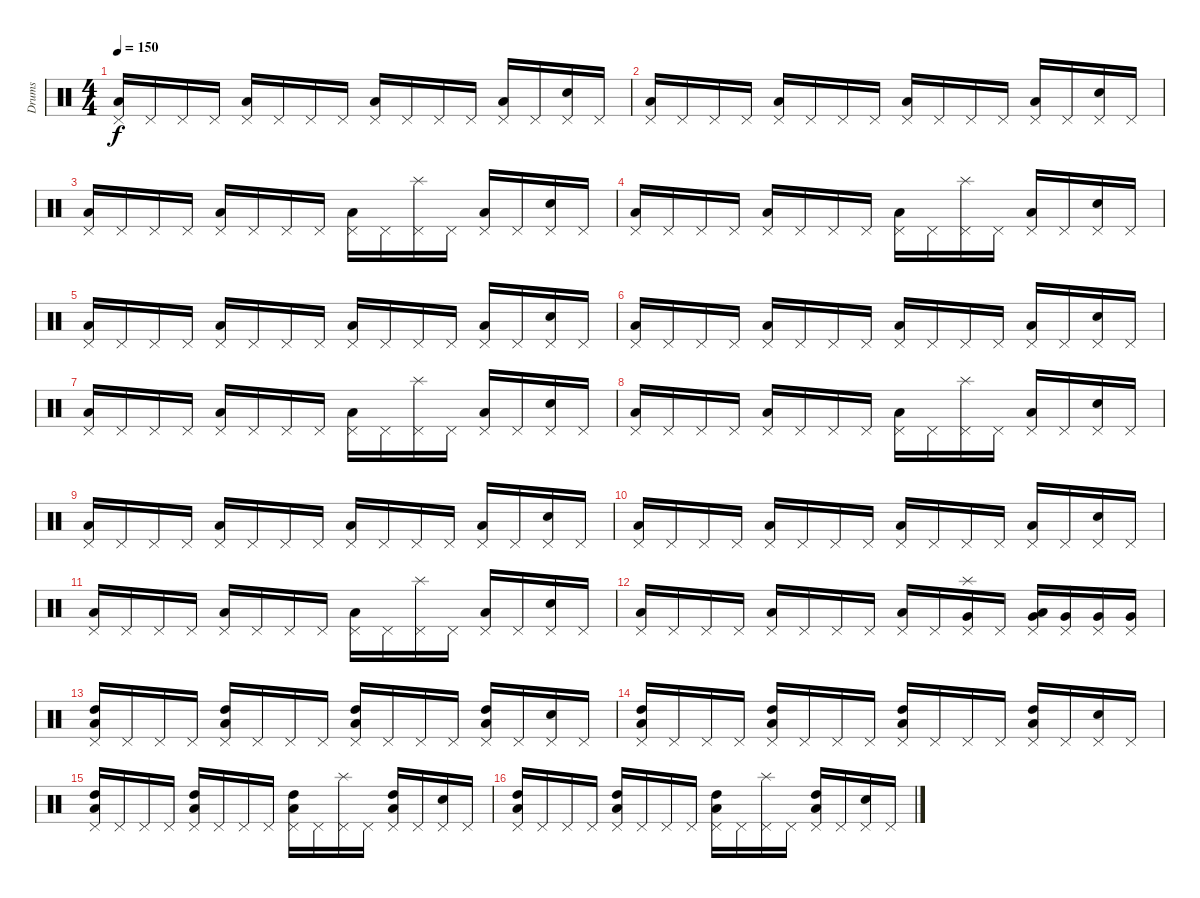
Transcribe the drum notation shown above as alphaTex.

\track ("Drums" "Drums") {instrument percussion}
\staff {score}
\articulation defaults
\ts (4 4)
\tempo 150
\clef neutral
\ks c
("Pedal Hi-Hat (hit)" "Low Tom (hit)").16{dy f} "Pedal Hi-Hat (hit)".16 "Pedal Hi-Hat (hit)".16 "Pedal Hi-Hat (hit)".16 ("Pedal Hi-Hat (hit)" "Low Tom (hit)").16 "Pedal Hi-Hat (hit)".16 "Pedal Hi-Hat (hit)".16 "Pedal Hi-Hat (hit)".16 ("Pedal Hi-Hat (hit)" "Low Tom (hit)").16 "Pedal Hi-Hat (hit)".16 "Pedal Hi-Hat (hit)".16 "Pedal Hi-Hat (hit)".16 ("Pedal Hi-Hat (hit)" "Low Tom (hit)").16 "Pedal Hi-Hat (hit)".16 ("Pedal Hi-Hat (hit)" "Electric Snare (hit)").16 "Pedal Hi-Hat (hit)".16 |
("Pedal Hi-Hat (hit)" "Low Tom (hit)").16 "Pedal Hi-Hat (hit)".16 "Pedal Hi-Hat (hit)".16 "Pedal Hi-Hat (hit)".16 ("Pedal Hi-Hat (hit)" "Low Tom (hit)").16 "Pedal Hi-Hat (hit)".16 "Pedal Hi-Hat (hit)".16 "Pedal Hi-Hat (hit)".16 ("Pedal Hi-Hat (hit)" "Low Tom (hit)").16 "Pedal Hi-Hat (hit)".16 "Pedal Hi-Hat (hit)".16 "Pedal Hi-Hat (hit)".16 ("Pedal Hi-Hat (hit)" "Low Tom (hit)").16 "Pedal Hi-Hat (hit)".16 ("Pedal Hi-Hat (hit)" "Electric Snare (hit)").16 "Pedal Hi-Hat (hit)".16 |
("Pedal Hi-Hat (hit)" "Low Tom (hit)").16 "Pedal Hi-Hat (hit)".16 "Pedal Hi-Hat (hit)".16 "Pedal Hi-Hat (hit)".16 ("Pedal Hi-Hat (hit)" "Low Tom (hit)").16 "Pedal Hi-Hat (hit)".16 "Pedal Hi-Hat (hit)".16 "Pedal Hi-Hat (hit)".16 ("Pedal Hi-Hat (hit)" "Low Tom (hit)").16 "Pedal Hi-Hat (hit)".16 ("Pedal Hi-Hat (hit)" "Splash (hit)").16 "Pedal Hi-Hat (hit)".16 ("Pedal Hi-Hat (hit)" "Low Tom (hit)").16 "Pedal Hi-Hat (hit)".16 ("Pedal Hi-Hat (hit)" "Electric Snare (hit)").16 "Pedal Hi-Hat (hit)".16 |
("Pedal Hi-Hat (hit)" "Low Tom (hit)").16 "Pedal Hi-Hat (hit)".16 "Pedal Hi-Hat (hit)".16 "Pedal Hi-Hat (hit)".16 ("Pedal Hi-Hat (hit)" "Low Tom (hit)").16 "Pedal Hi-Hat (hit)".16 "Pedal Hi-Hat (hit)".16 "Pedal Hi-Hat (hit)".16 ("Pedal Hi-Hat (hit)" "Low Tom (hit)").16 "Pedal Hi-Hat (hit)".16 ("Pedal Hi-Hat (hit)" "Splash (hit)").16 "Pedal Hi-Hat (hit)".16 ("Pedal Hi-Hat (hit)" "Low Tom (hit)").16 "Pedal Hi-Hat (hit)".16 ("Pedal Hi-Hat (hit)" "Electric Snare (hit)").16 "Pedal Hi-Hat (hit)".16 |
("Pedal Hi-Hat (hit)" "Low Tom (hit)").16 "Pedal Hi-Hat (hit)".16 "Pedal Hi-Hat (hit)".16 "Pedal Hi-Hat (hit)".16 ("Pedal Hi-Hat (hit)" "Low Tom (hit)").16 "Pedal Hi-Hat (hit)".16 "Pedal Hi-Hat (hit)".16 "Pedal Hi-Hat (hit)".16 ("Pedal Hi-Hat (hit)" "Low Tom (hit)").16 "Pedal Hi-Hat (hit)".16 "Pedal Hi-Hat (hit)".16 "Pedal Hi-Hat (hit)".16 ("Pedal Hi-Hat (hit)" "Low Tom (hit)").16 "Pedal Hi-Hat (hit)".16 ("Pedal Hi-Hat (hit)" "Electric Snare (hit)").16 "Pedal Hi-Hat (hit)".16 |
("Pedal Hi-Hat (hit)" "Low Tom (hit)").16 "Pedal Hi-Hat (hit)".16 "Pedal Hi-Hat (hit)".16 "Pedal Hi-Hat (hit)".16 ("Pedal Hi-Hat (hit)" "Low Tom (hit)").16 "Pedal Hi-Hat (hit)".16 "Pedal Hi-Hat (hit)".16 "Pedal Hi-Hat (hit)".16 ("Pedal Hi-Hat (hit)" "Low Tom (hit)").16 "Pedal Hi-Hat (hit)".16 "Pedal Hi-Hat (hit)".16 "Pedal Hi-Hat (hit)".16 ("Pedal Hi-Hat (hit)" "Low Tom (hit)").16 "Pedal Hi-Hat (hit)".16 ("Pedal Hi-Hat (hit)" "Electric Snare (hit)").16 "Pedal Hi-Hat (hit)".16 |
("Pedal Hi-Hat (hit)" "Low Tom (hit)").16 "Pedal Hi-Hat (hit)".16 "Pedal Hi-Hat (hit)".16 "Pedal Hi-Hat (hit)".16 ("Pedal Hi-Hat (hit)" "Low Tom (hit)").16 "Pedal Hi-Hat (hit)".16 "Pedal Hi-Hat (hit)".16 "Pedal Hi-Hat (hit)".16 ("Pedal Hi-Hat (hit)" "Low Tom (hit)").16 "Pedal Hi-Hat (hit)".16 ("Pedal Hi-Hat (hit)" "Splash (hit)").16 "Pedal Hi-Hat (hit)".16 ("Pedal Hi-Hat (hit)" "Low Tom (hit)").16 "Pedal Hi-Hat (hit)".16 ("Pedal Hi-Hat (hit)" "Electric Snare (hit)").16 "Pedal Hi-Hat (hit)".16 |
("Pedal Hi-Hat (hit)" "Low Tom (hit)").16 "Pedal Hi-Hat (hit)".16 "Pedal Hi-Hat (hit)".16 "Pedal Hi-Hat (hit)".16 ("Pedal Hi-Hat (hit)" "Low Tom (hit)").16 "Pedal Hi-Hat (hit)".16 "Pedal Hi-Hat (hit)".16 "Pedal Hi-Hat (hit)".16 ("Pedal Hi-Hat (hit)" "Low Tom (hit)").16 "Pedal Hi-Hat (hit)".16 ("Pedal Hi-Hat (hit)" "Splash (hit)").16 "Pedal Hi-Hat (hit)".16 ("Pedal Hi-Hat (hit)" "Low Tom (hit)").16 "Pedal Hi-Hat (hit)".16 ("Pedal Hi-Hat (hit)" "Electric Snare (hit)").16 "Pedal Hi-Hat (hit)".16 |
("Pedal Hi-Hat (hit)" "Low Tom (hit)").16 "Pedal Hi-Hat (hit)".16 "Pedal Hi-Hat (hit)".16 "Pedal Hi-Hat (hit)".16 ("Pedal Hi-Hat (hit)" "Low Tom (hit)").16 "Pedal Hi-Hat (hit)".16 "Pedal Hi-Hat (hit)".16 "Pedal Hi-Hat (hit)".16 ("Pedal Hi-Hat (hit)" "Low Tom (hit)").16 "Pedal Hi-Hat (hit)".16 "Pedal Hi-Hat (hit)".16 "Pedal Hi-Hat (hit)".16 ("Pedal Hi-Hat (hit)" "Low Tom (hit)").16 "Pedal Hi-Hat (hit)".16 ("Pedal Hi-Hat (hit)" "Electric Snare (hit)").16 "Pedal Hi-Hat (hit)".16 |
("Pedal Hi-Hat (hit)" "Low Tom (hit)").16 "Pedal Hi-Hat (hit)".16 "Pedal Hi-Hat (hit)".16 "Pedal Hi-Hat (hit)".16 ("Pedal Hi-Hat (hit)" "Low Tom (hit)").16 "Pedal Hi-Hat (hit)".16 "Pedal Hi-Hat (hit)".16 "Pedal Hi-Hat (hit)".16 ("Pedal Hi-Hat (hit)" "Low Tom (hit)").16 "Pedal Hi-Hat (hit)".16 "Pedal Hi-Hat (hit)".16 "Pedal Hi-Hat (hit)".16 ("Pedal Hi-Hat (hit)" "Low Tom (hit)").16 "Pedal Hi-Hat (hit)".16 ("Pedal Hi-Hat (hit)" "Electric Snare (hit)").16 "Pedal Hi-Hat (hit)".16 |
("Pedal Hi-Hat (hit)" "Low Tom (hit)").16 "Pedal Hi-Hat (hit)".16 "Pedal Hi-Hat (hit)".16 "Pedal Hi-Hat (hit)".16 ("Pedal Hi-Hat (hit)" "Low Tom (hit)").16 "Pedal Hi-Hat (hit)".16 "Pedal Hi-Hat (hit)".16 "Pedal Hi-Hat (hit)".16 ("Pedal Hi-Hat (hit)" "Low Tom (hit)").16 "Pedal Hi-Hat (hit)".16 ("Pedal Hi-Hat (hit)" "Splash (hit)").16 "Pedal Hi-Hat (hit)".16 ("Pedal Hi-Hat (hit)" "Low Tom (hit)").16 "Pedal Hi-Hat (hit)".16 ("Pedal Hi-Hat (hit)" "Electric Snare (hit)").16 "Pedal Hi-Hat (hit)".16 |
("Pedal Hi-Hat (hit)" "Low Tom (hit)").16 "Pedal Hi-Hat (hit)".16 "Pedal Hi-Hat (hit)".16 "Pedal Hi-Hat (hit)".16 ("Pedal Hi-Hat (hit)" "Low Tom (hit)").16 "Pedal Hi-Hat (hit)".16 "Pedal Hi-Hat (hit)".16 "Pedal Hi-Hat (hit)".16 ("Pedal Hi-Hat (hit)" "Low Tom (hit)").16 "Pedal Hi-Hat (hit)".16 ("Pedal Hi-Hat (hit)" "Very Low Tom (hit)" "Splash (hit)").16 "Pedal Hi-Hat (hit)".16 ("Pedal Hi-Hat (hit)" "Very Low Tom (hit)" "Low Tom (hit)").16 ("Pedal Hi-Hat (hit)" "Very Low Tom (hit)").16 ("Pedal Hi-Hat (hit)" "Very Low Tom (hit)").16 ("Pedal Hi-Hat (hit)" "Very Low Tom (hit)").16 |
("Pedal Hi-Hat (hit)" "High Tom (hit)" "Low Tom (hit)").16 "Pedal Hi-Hat (hit)".16 "Pedal Hi-Hat (hit)".16 "Pedal Hi-Hat (hit)".16 ("Pedal Hi-Hat (hit)" "High Tom (hit)" "Low Tom (hit)").16 "Pedal Hi-Hat (hit)".16 "Pedal Hi-Hat (hit)".16 "Pedal Hi-Hat (hit)".16 ("Pedal Hi-Hat (hit)" "High Tom (hit)" "Low Tom (hit)").16 "Pedal Hi-Hat (hit)".16 "Pedal Hi-Hat (hit)".16 "Pedal Hi-Hat (hit)".16 ("Pedal Hi-Hat (hit)" "High Tom (hit)" "Low Tom (hit)").16 "Pedal Hi-Hat (hit)".16 ("Pedal Hi-Hat (hit)" "Electric Snare (hit)").16 "Pedal Hi-Hat (hit)".16 |
("Pedal Hi-Hat (hit)" "High Tom (hit)" "Low Tom (hit)").16 "Pedal Hi-Hat (hit)".16 "Pedal Hi-Hat (hit)".16 "Pedal Hi-Hat (hit)".16 ("Pedal Hi-Hat (hit)" "High Tom (hit)" "Low Tom (hit)").16 "Pedal Hi-Hat (hit)".16 "Pedal Hi-Hat (hit)".16 "Pedal Hi-Hat (hit)".16 ("Pedal Hi-Hat (hit)" "High Tom (hit)" "Low Tom (hit)").16 "Pedal Hi-Hat (hit)".16 "Pedal Hi-Hat (hit)".16 "Pedal Hi-Hat (hit)".16 ("Pedal Hi-Hat (hit)" "High Tom (hit)" "Low Tom (hit)").16 "Pedal Hi-Hat (hit)".16 ("Pedal Hi-Hat (hit)" "Electric Snare (hit)").16 "Pedal Hi-Hat (hit)".16 |
("Pedal Hi-Hat (hit)" "High Tom (hit)" "Low Tom (hit)").16 "Pedal Hi-Hat (hit)".16 "Pedal Hi-Hat (hit)".16 "Pedal Hi-Hat (hit)".16 ("Pedal Hi-Hat (hit)" "High Tom (hit)" "Low Tom (hit)").16 "Pedal Hi-Hat (hit)".16 "Pedal Hi-Hat (hit)".16 "Pedal Hi-Hat (hit)".16 ("Pedal Hi-Hat (hit)" "High Tom (hit)" "Low Tom (hit)").16 "Pedal Hi-Hat (hit)".16 ("Pedal Hi-Hat (hit)" "Splash (hit)").16 "Pedal Hi-Hat (hit)".16 ("Pedal Hi-Hat (hit)" "High Tom (hit)" "Low Tom (hit)").16 "Pedal Hi-Hat (hit)".16 ("Pedal Hi-Hat (hit)" "Electric Snare (hit)").16 "Pedal Hi-Hat (hit)".16 |
("Pedal Hi-Hat (hit)" "High Tom (hit)" "Low Tom (hit)").16 "Pedal Hi-Hat (hit)".16 "Pedal Hi-Hat (hit)".16 "Pedal Hi-Hat (hit)".16 ("Pedal Hi-Hat (hit)" "High Tom (hit)" "Low Tom (hit)").16 "Pedal Hi-Hat (hit)".16 "Pedal Hi-Hat (hit)".16 "Pedal Hi-Hat (hit)".16 ("Pedal Hi-Hat (hit)" "High Tom (hit)" "Low Tom (hit)").16 "Pedal Hi-Hat (hit)".16 ("Pedal Hi-Hat (hit)" "Splash (hit)").16 "Pedal Hi-Hat (hit)".16 ("Pedal Hi-Hat (hit)" "High Tom (hit)" "Low Tom (hit)").16 "Pedal Hi-Hat (hit)".16 ("Pedal Hi-Hat (hit)" "Electric Snare (hit)").16 "Pedal Hi-Hat (hit)".16
